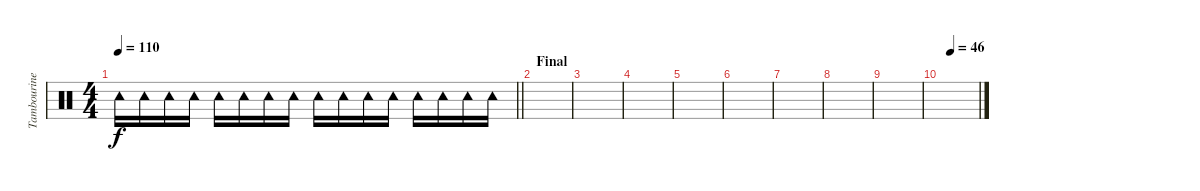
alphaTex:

\track ("Tambourine" "Tambourine") {instrument percussion}
\staff {score}
\articulation defaults
\ts (4 4)
\tempo 110
\clef neutral
\barLineRight lightlight
\ks c "Tambourine (hit)".16{dy f} "Tambourine (hit)".16 "Tambourine (hit)".16 "Tambourine (hit)".16 "Tambourine (hit)".16 "Tambourine (hit)".16 "Tambourine (hit)".16 "Tambourine (hit)".16 "Tambourine (hit)".16 "Tambourine (hit)".16 "Tambourine (hit)".16 "Tambourine (hit)".16 "Tambourine (hit)".16 "Tambourine (hit)".16 "Tambourine (hit)".16 "Tambourine (hit)".16
|
\section ("" "Final")
|
|
|
|
|
|
|
|
\tempo (46 0.25)
